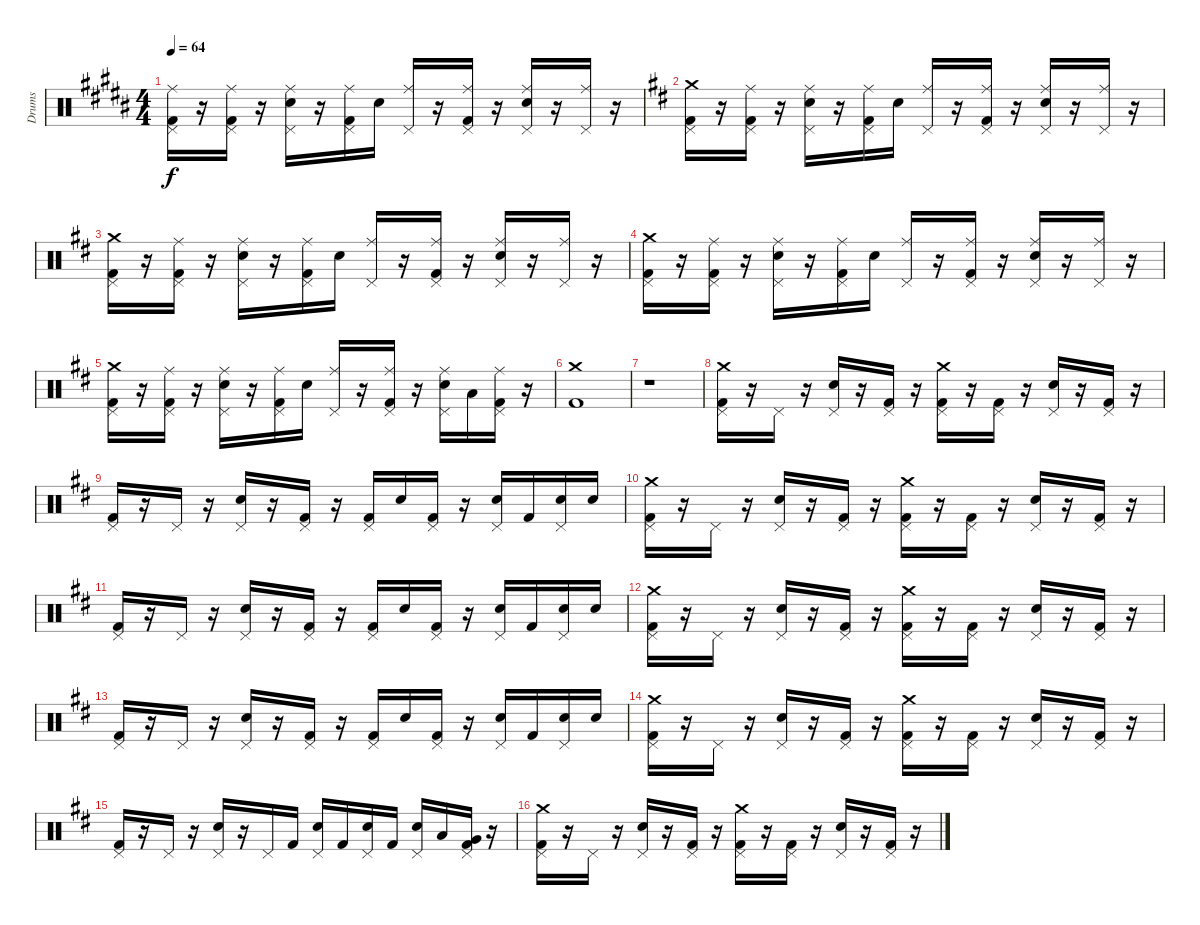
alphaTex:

\track ("Drums" "Drums") {instrument percussion}
\staff {score}
\articulation defaults
\ts (4 4)
\tempo 64
\clef neutral
\ks b
("Ride (middle)" "Pedal Hi-Hat (hit)" "Kick (hit) 2").16{dy f} r.16 ("Ride (middle)" "Pedal Hi-Hat (hit)" "Kick (hit) 2").16 r.16 ("Ride (middle)" "Pedal Hi-Hat (hit)" "Snare (hit) 2").16 r.16 ("Ride (middle)" "Pedal Hi-Hat (hit)" "Kick (hit) 2").16 "Snare (hit) 2".16 ("Ride (middle)" "Pedal Hi-Hat (hit)").16 r.16 ("Ride (middle)" "Pedal Hi-Hat (hit)" "Kick (hit) 2").16 r.16 ("Ride (middle)" "Pedal Hi-Hat (hit)" "Snare (hit) 2").16 r.16 ("Ride (middle)" "Pedal Hi-Hat (hit)").16 r.16 |
\ks d
("Crash medium (hit)" "Pedal Hi-Hat (hit)" "Kick (hit) 2").16 r.16 ("Ride (middle)" "Pedal Hi-Hat (hit)" "Kick (hit) 2").16 r.16 ("Ride (middle)" "Pedal Hi-Hat (hit)" "Snare (hit) 2").16 r.16 ("Ride (middle)" "Pedal Hi-Hat (hit)" "Kick (hit) 2").16 "Snare (hit) 2".16 ("Ride (middle)" "Pedal Hi-Hat (hit)").16 r.16 ("Ride (middle)" "Pedal Hi-Hat (hit)" "Kick (hit) 2").16 r.16 ("Ride (middle)" "Pedal Hi-Hat (hit)" "Snare (hit) 2").16 r.16 ("Ride (middle)" "Pedal Hi-Hat (hit)").16 r.16 |
("Crash medium (hit)" "Pedal Hi-Hat (hit)" "Kick (hit) 2").16 r.16 ("Ride (middle)" "Pedal Hi-Hat (hit)" "Kick (hit) 2").16 r.16 ("Ride (middle)" "Pedal Hi-Hat (hit)" "Snare (hit) 2").16 r.16 ("Ride (middle)" "Pedal Hi-Hat (hit)" "Kick (hit) 2").16 "Snare (hit) 2".16 ("Ride (middle)" "Pedal Hi-Hat (hit)").16 r.16 ("Ride (middle)" "Pedal Hi-Hat (hit)" "Kick (hit) 2").16 r.16 ("Ride (middle)" "Pedal Hi-Hat (hit)" "Snare (hit) 2").16 r.16 ("Ride (middle)" "Pedal Hi-Hat (hit)").16 r.16 |
("Crash medium (hit)" "Pedal Hi-Hat (hit)" "Kick (hit) 2").16 r.16 ("Ride (middle)" "Pedal Hi-Hat (hit)" "Kick (hit) 2").16 r.16 ("Ride (middle)" "Pedal Hi-Hat (hit)" "Snare (hit) 2").16 r.16 ("Ride (middle)" "Pedal Hi-Hat (hit)" "Kick (hit) 2").16 "Snare (hit) 2".16 ("Ride (middle)" "Pedal Hi-Hat (hit)").16 r.16 ("Ride (middle)" "Pedal Hi-Hat (hit)" "Kick (hit) 2").16 r.16 ("Ride (middle)" "Pedal Hi-Hat (hit)" "Snare (hit) 2").16 r.16 ("Ride (middle)" "Pedal Hi-Hat (hit)").16 r.16 |
("Crash medium (hit)" "Pedal Hi-Hat (hit)" "Kick (hit) 2").16 r.16 ("Ride (middle)" "Pedal Hi-Hat (hit)" "Kick (hit) 2").16 r.16 ("Ride (middle)" "Pedal Hi-Hat (hit)" "Snare (hit) 2").16 r.16 ("Ride (middle)" "Pedal Hi-Hat (hit)" "Kick (hit) 2").16 "Snare (hit) 2".16 ("Ride (middle)" "Pedal Hi-Hat (hit)").16 r.16 ("Ride (middle)" "Pedal Hi-Hat (hit)" "Kick (hit) 2").16 r.16 ("Ride (middle)" "Pedal Hi-Hat (hit)" "Snare (hit) 2").16 "Low Tom (hit)".16 ("Ride (middle)" "Pedal Hi-Hat (hit)" "Kick (hit) 2").16 r.16 |
("Crash medium (hit)" "Kick (hit) 2").1 |
r.1 |
("Crash medium (hit)" "Pedal Hi-Hat (hit)" "Kick (hit) 2").16{volume 16} r.16 "Pedal Hi-Hat (hit)".16 r.16 ("Pedal Hi-Hat (hit)" "Snare (hit) 2").16 r.16 ("Pedal Hi-Hat (hit)" "Kick (hit) 2").16 r.16 ("Crash medium (hit)" "Pedal Hi-Hat (hit)" "Kick (hit) 2").16 r.16 ("Pedal Hi-Hat (hit)" "Kick (hit) 2").16 r.16 ("Pedal Hi-Hat (hit)" "Snare (hit) 2").16 r.16 ("Pedal Hi-Hat (hit)" "Kick (hit) 2").16 r.16 |
("Pedal Hi-Hat (hit)" "Kick (hit) 2").16 r.16 "Pedal Hi-Hat (hit)".16 r.16 ("Pedal Hi-Hat (hit)" "Snare (hit) 2").16 r.16 ("Pedal Hi-Hat (hit)" "Kick (hit) 2").16 r.16 ("Pedal Hi-Hat (hit)" "Kick (hit) 2").16 "Snare (hit) 2".16 ("Pedal Hi-Hat (hit)" "Kick (hit) 2").16 r.16 ("Pedal Hi-Hat (hit)" "Snare (hit) 2").16 "Kick (hit) 2".16 ("Pedal Hi-Hat (hit)" "Snare (hit) 2").16 "Snare (hit) 2".16 |
("Crash medium (hit)" "Pedal Hi-Hat (hit)" "Kick (hit) 2").16 r.16 "Pedal Hi-Hat (hit)".16 r.16 ("Pedal Hi-Hat (hit)" "Snare (hit) 2").16 r.16 ("Pedal Hi-Hat (hit)" "Kick (hit) 2").16 r.16 ("Crash medium (hit)" "Pedal Hi-Hat (hit)" "Kick (hit) 2").16 r.16 ("Pedal Hi-Hat (hit)" "Kick (hit) 2").16 r.16 ("Pedal Hi-Hat (hit)" "Snare (hit) 2").16 r.16 ("Pedal Hi-Hat (hit)" "Kick (hit) 2").16 r.16 |
("Pedal Hi-Hat (hit)" "Kick (hit) 2").16 r.16 "Pedal Hi-Hat (hit)".16 r.16 ("Pedal Hi-Hat (hit)" "Snare (hit) 2").16 r.16 ("Pedal Hi-Hat (hit)" "Kick (hit) 2").16 r.16 ("Pedal Hi-Hat (hit)" "Kick (hit) 2").16 "Snare (hit) 2".16 ("Pedal Hi-Hat (hit)" "Kick (hit) 2").16 r.16 ("Pedal Hi-Hat (hit)" "Snare (hit) 2").16 "Kick (hit) 2".16 ("Pedal Hi-Hat (hit)" "Snare (hit) 2").16 "Snare (hit) 2".16 |
("Crash medium (hit)" "Pedal Hi-Hat (hit)" "Kick (hit) 2").16 r.16 "Pedal Hi-Hat (hit)".16 r.16 ("Pedal Hi-Hat (hit)" "Snare (hit) 2").16 r.16 ("Pedal Hi-Hat (hit)" "Kick (hit) 2").16 r.16 ("Crash medium (hit)" "Pedal Hi-Hat (hit)" "Kick (hit) 2").16 r.16 ("Pedal Hi-Hat (hit)" "Kick (hit) 2").16 r.16 ("Pedal Hi-Hat (hit)" "Snare (hit) 2").16 r.16 ("Pedal Hi-Hat (hit)" "Kick (hit) 2").16 r.16 |
("Pedal Hi-Hat (hit)" "Kick (hit) 2").16 r.16 "Pedal Hi-Hat (hit)".16 r.16 ("Pedal Hi-Hat (hit)" "Snare (hit) 2").16 r.16 ("Pedal Hi-Hat (hit)" "Kick (hit) 2").16 r.16 ("Pedal Hi-Hat (hit)" "Kick (hit) 2").16 "Snare (hit) 2".16 ("Pedal Hi-Hat (hit)" "Kick (hit) 2").16 r.16 ("Pedal Hi-Hat (hit)" "Snare (hit) 2").16 "Kick (hit) 2".16 ("Pedal Hi-Hat (hit)" "Snare (hit) 2").16 "Snare (hit) 2".16 |
("Crash medium (hit)" "Pedal Hi-Hat (hit)" "Kick (hit) 2").16 r.16 "Pedal Hi-Hat (hit)".16 r.16 ("Pedal Hi-Hat (hit)" "Snare (hit) 2").16 r.16 ("Pedal Hi-Hat (hit)" "Kick (hit) 2").16 r.16 ("Crash medium (hit)" "Pedal Hi-Hat (hit)" "Kick (hit) 2").16 r.16 ("Pedal Hi-Hat (hit)" "Kick (hit) 2").16 r.16 ("Pedal Hi-Hat (hit)" "Snare (hit) 2").16 r.16 ("Pedal Hi-Hat (hit)" "Kick (hit) 2").16 r.16 |
("Pedal Hi-Hat (hit)" "Kick (hit) 2").16 r.16 "Pedal Hi-Hat (hit)".16 r.16 ("Pedal Hi-Hat (hit)" "Snare (hit) 2").16 r.16 "Pedal Hi-Hat (hit)".16 "Kick (hit) 2".16 ("Pedal Hi-Hat (hit)" "Snare (hit) 2").16 "Kick (hit) 2".16 ("Pedal Hi-Hat (hit)" "Snare (hit) 2").16 "Kick (hit) 2".16 ("Pedal Hi-Hat (hit)" "Snare (hit) 2").16 "Low Tom (hit)".16 ("Pedal Hi-Hat (hit)" "Very Low Tom (hit)" "Kick (hit) 2").16 r.16 |
("Crash medium (hit)" "Pedal Hi-Hat (hit)" "Kick (hit) 2").16 r.16 "Pedal Hi-Hat (hit)".16 r.16 ("Pedal Hi-Hat (hit)" "Snare (hit) 2").16 r.16 ("Pedal Hi-Hat (hit)" "Kick (hit) 2").16 r.16 ("Crash medium (hit)" "Pedal Hi-Hat (hit)" "Kick (hit) 2").16 r.16 ("Pedal Hi-Hat (hit)" "Kick (hit) 2").16 r.16 ("Pedal Hi-Hat (hit)" "Snare (hit) 2").16 r.16 ("Pedal Hi-Hat (hit)" "Kick (hit) 2").16 r.16
